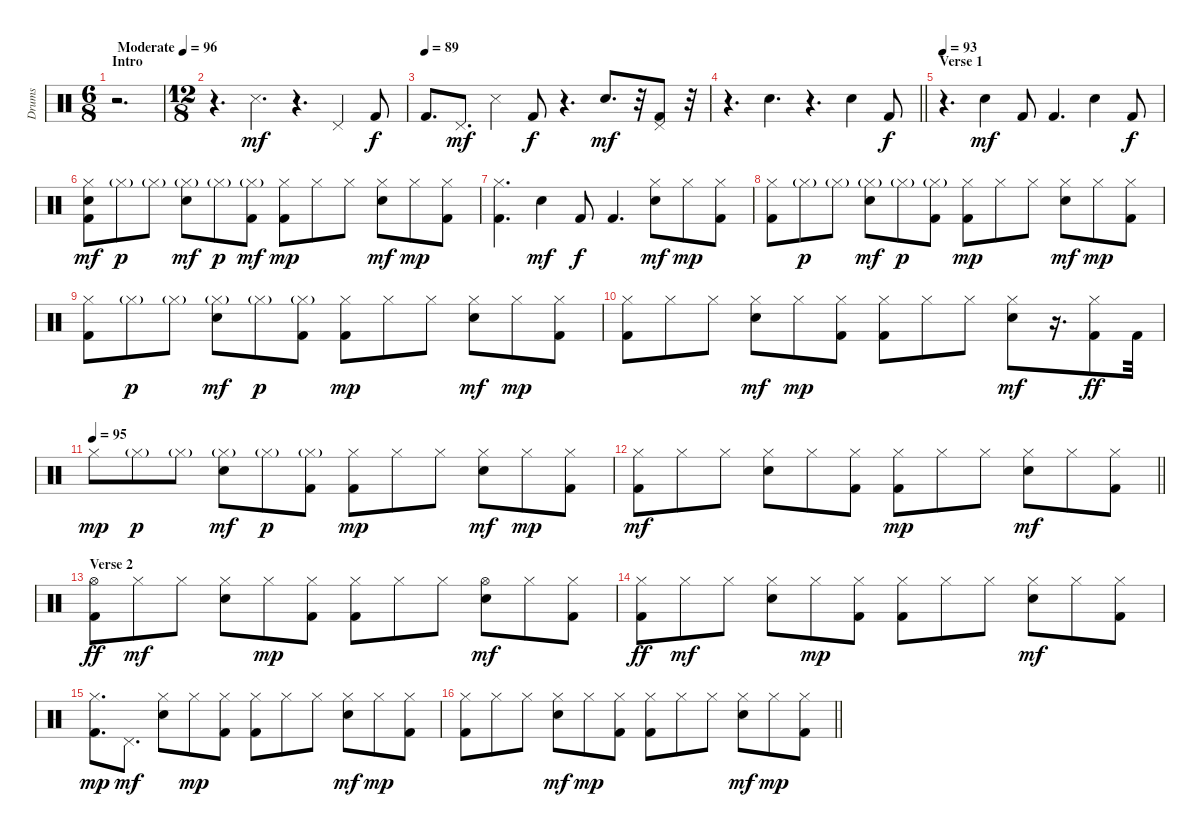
\track ("Drums" "Drums") {instrument percussion}
\staff {score}
\articulation defaults
\ts (6 8)
\section ("" "Intro")
\tempo (96 "Moderate")
\tempo 87
\tempo (96 "Moderate")
\clef neutral
\ks c
r.2{d dy mf} |
\ts (12 8)
r.4{d} "Snare (side stick) 3".4{d} r.4{d} "Pedal Hi-Hat (hit)".4 "Kick (hit) 2".8{dy f} |
\tempo (89)
"Kick (hit) 2".8{d} "Pedal Hi-Hat (hit)".8{d dy mf} "Snare (side stick) 3".4 "Kick (hit) 2".8{dy f} r.4{d} "Snare (hit) 2".8{d dy mf} r.32 ("Pedal Hi-Hat (hit)" "Kick (hit) 2").8 r.32 |
\barLineRight lightlight
r.4{d} "Snare (hit) 2".4{d} r.4{d} "Snare (hit) 2".4 "Kick (hit) 2".8{dy f} |
\section ("" "Verse 1")
\tempo 93
r.4{d} "Snare (hit) 2".4{dy mf} "Kick (hit) 2".8 "Kick (hit) 2".4{d} "Snare (hit) 2".4 "Kick (hit) 2".8{dy f} |
("Hi-Hat (closed)" "Snare (hit) 2" "Kick (hit) 2").8{dy mf} "Hi-Hat (closed)"{g}.8{dy p} "Hi-Hat (closed)"{g}.8 ("Hi-Hat (closed)"{g} "Snare (hit) 2").8{dy mf} "Hi-Hat (closed)"{g}.8{dy p} ("Hi-Hat (closed)"{g} "Kick (hit) 2").8{dy mf} ("Hi-Hat (closed)" "Kick (hit) 2").8{dy mp} "Hi-Hat (closed)".8 "Hi-Hat (closed)".8 ("Hi-Hat (closed)" "Snare (hit) 2").8{dy mf} "Hi-Hat (closed)".8{dy mp} ("Hi-Hat (closed)" "Kick (hit) 2").8 |
("Hi-Hat (closed)" "Kick (hit) 2").4{d} "Snare (hit) 2".4{dy mf} "Kick (hit) 2".8{dy f} "Kick (hit) 2".4{d} ("Hi-Hat (closed)" "Snare (hit) 2").8{dy mf} "Hi-Hat (closed)".8{dy mp} ("Hi-Hat (closed)" "Kick (hit) 2").8 |
("Hi-Hat (closed)" "Kick (hit) 2").8 "Hi-Hat (closed)"{g}.8{dy p} "Hi-Hat (closed)"{g}.8 ("Hi-Hat (closed)"{g} "Snare (hit) 2").8{dy mf} "Hi-Hat (closed)"{g}.8{dy p} ("Hi-Hat (closed)"{g} "Kick (hit) 2").8 ("Hi-Hat (closed)" "Kick (hit) 2").8{dy mp} "Hi-Hat (closed)".8 "Hi-Hat (closed)".8 ("Hi-Hat (closed)" "Snare (hit) 2").8{dy mf} "Hi-Hat (closed)".8{dy mp} ("Hi-Hat (closed)" "Kick (hit) 2").8 |
("Hi-Hat (closed)" "Kick (hit) 2").8 "Hi-Hat (closed)"{g}.8{dy p} "Hi-Hat (closed)"{g}.8 ("Hi-Hat (closed)"{g} "Snare (hit) 2").8{dy mf} "Hi-Hat (closed)"{g}.8{dy p} ("Hi-Hat (closed)"{g} "Kick (hit) 2").8 ("Hi-Hat (closed)" "Kick (hit) 2").8{dy mp} "Hi-Hat (closed)".8 "Hi-Hat (closed)".8 ("Hi-Hat (closed)" "Snare (hit) 2").8{dy mf} "Hi-Hat (closed)".8{dy mp} ("Hi-Hat (closed)" "Kick (hit) 2").8 |
("Hi-Hat (closed)" "Kick (hit) 2").8 "Hi-Hat (closed)".8 "Hi-Hat (closed)".8 ("Hi-Hat (closed)" "Snare (hit) 2").8{dy mf} "Hi-Hat (closed)".8{dy mp} ("Hi-Hat (closed)" "Kick (hit) 2").8 ("Hi-Hat (closed)" "Kick (hit) 2").8 "Hi-Hat (closed)".8 "Hi-Hat (closed)".8 ("Hi-Hat (closed)" "Snare (hit) 2").8{dy mf} r.16{d} ("Hi-Hat (closed)" "Kick (hit) 2").8{dy ff} "Kick (hit) 2".32 |
\tempo (95)
"Hi-Hat (closed)".8{dy mp} "Hi-Hat (closed)"{g}.8{dy p} "Hi-Hat (closed)"{g}.8 ("Hi-Hat (closed)"{g} "Snare (hit) 2").8{dy mf} "Hi-Hat (closed)"{g}.8{dy p} ("Hi-Hat (closed)"{g} "Kick (hit) 2").8 ("Hi-Hat (closed)" "Kick (hit) 2").8{dy mp} "Hi-Hat (closed)".8 "Hi-Hat (closed)".8 ("Hi-Hat (closed)" "Snare (hit) 2").8{dy mf} "Hi-Hat (closed)".8{dy mp} ("Hi-Hat (closed)" "Kick (hit) 2").8 |
\barLineRight lightlight
("Hi-Hat (closed)" "Kick (hit) 2").8{dy mf} "Hi-Hat (closed)".8 "Hi-Hat (closed)".8 ("Hi-Hat (closed)" "Snare (hit) 2").8 "Hi-Hat (closed)".8 ("Hi-Hat (closed)" "Kick (hit) 2").8 ("Hi-Hat (closed)" "Kick (hit) 2").8{dy mp} "Hi-Hat (closed)".8 "Hi-Hat (closed)".8 ("Hi-Hat (closed)" "Snare (hit) 2").8{dy mf} "Hi-Hat (closed)".8 ("Hi-Hat (closed)" "Kick (hit) 2").8 |
\section ("" "Verse 2")
("Hi-Hat (open)" "Kick (hit) 2").8{dy ff} "Hi-Hat (closed)".8{dy mf} "Hi-Hat (closed)".8 ("Hi-Hat (closed)" "Snare (hit) 2").8 "Hi-Hat (closed)".8{dy mp} ("Hi-Hat (closed)" "Kick (hit) 2").8 ("Hi-Hat (closed)" "Kick (hit) 2").8 "Hi-Hat (closed)".8 "Hi-Hat (closed)".8 ("Hi-Hat (open)" "Snare (hit) 2").8{dy mf} "Hi-Hat (closed)".8 ("Hi-Hat (closed)" "Kick (hit) 2").8 |
("Hi-Hat (closed)" "Kick (hit) 2").8{dy ff} "Hi-Hat (closed)".8{dy mf} "Hi-Hat (closed)".8 ("Hi-Hat (closed)" "Snare (hit) 2").8 "Hi-Hat (closed)".8{dy mp} ("Hi-Hat (closed)" "Kick (hit) 2").8 ("Hi-Hat (closed)" "Kick (hit) 2").8 "Hi-Hat (closed)".8 "Hi-Hat (closed)".8 ("Hi-Hat (closed)" "Snare (hit) 2").8{dy mf} "Hi-Hat (closed)".8 ("Hi-Hat (closed)" "Kick (hit) 2").8 |
("Hi-Hat (closed)" "Kick (hit) 2").8{d dy mp} "Pedal Hi-Hat (hit)".8{d dy mf} ("Hi-Hat (closed)" "Snare (hit) 2").8 "Hi-Hat (closed)".8{dy mp} ("Hi-Hat (closed)" "Kick (hit) 2").8 ("Hi-Hat (closed)" "Kick (hit) 2").8 "Hi-Hat (closed)".8 "Hi-Hat (closed)".8 ("Hi-Hat (closed)" "Snare (hit) 2").8{dy mf} "Hi-Hat (closed)".8{dy mp} ("Hi-Hat (closed)" "Kick (hit) 2").8 |
\barLineRight lightlight
("Hi-Hat (closed)" "Kick (hit) 2").8 "Hi-Hat (closed)".8 "Hi-Hat (closed)".8 ("Hi-Hat (closed)" "Snare (hit) 2").8{dy mf} "Hi-Hat (closed)".8{dy mp} ("Hi-Hat (closed)" "Kick (hit) 2").8 ("Hi-Hat (closed)" "Kick (hit) 2").8 "Hi-Hat (closed)".8 "Hi-Hat (closed)".8 ("Hi-Hat (closed)" "Snare (hit) 2").8{dy mf} "Hi-Hat (closed)".8{dy mp} ("Hi-Hat (closed)" "Kick (hit) 2").8
